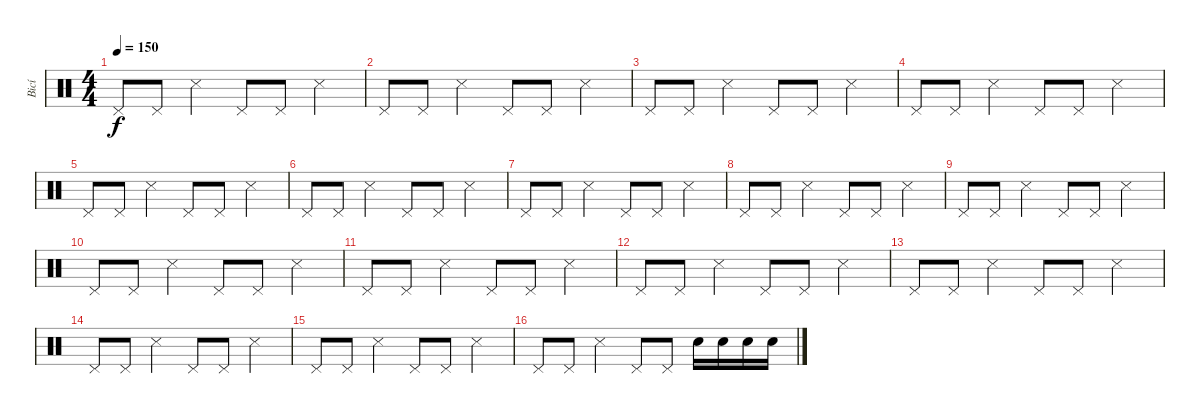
\track ("Bicí" "Bicí") {instrument percussion}
\staff {score}
\articulation defaults
\ts (4 4)
\tempo 150
\clef neutral
\ks c "Pedal Hi-Hat (hit)".8{dy f} "Pedal Hi-Hat (hit)".8 "Snare (side stick) 3".4 "Pedal Hi-Hat (hit)".8 "Pedal Hi-Hat (hit)".8 "Snare (side stick) 3".4
|
"Pedal Hi-Hat (hit)".8 "Pedal Hi-Hat (hit)".8 "Snare (side stick) 3".4 "Pedal Hi-Hat (hit)".8 "Pedal Hi-Hat (hit)".8 "Snare (side stick) 3".4 |
"Pedal Hi-Hat (hit)".8 "Pedal Hi-Hat (hit)".8 "Snare (side stick) 3".4 "Pedal Hi-Hat (hit)".8 "Pedal Hi-Hat (hit)".8 "Snare (side stick) 3".4 |
"Pedal Hi-Hat (hit)".8 "Pedal Hi-Hat (hit)".8 "Snare (side stick) 3".4 "Pedal Hi-Hat (hit)".8 "Pedal Hi-Hat (hit)".8 "Snare (side stick) 3".4 |
"Pedal Hi-Hat (hit)".8 "Pedal Hi-Hat (hit)".8 "Snare (side stick) 3".4 "Pedal Hi-Hat (hit)".8 "Pedal Hi-Hat (hit)".8 "Snare (side stick) 3".4 |
"Pedal Hi-Hat (hit)".8 "Pedal Hi-Hat (hit)".8 "Snare (side stick) 3".4 "Pedal Hi-Hat (hit)".8 "Pedal Hi-Hat (hit)".8 "Snare (side stick) 3".4 |
"Pedal Hi-Hat (hit)".8 "Pedal Hi-Hat (hit)".8 "Snare (side stick) 3".4 "Pedal Hi-Hat (hit)".8 "Pedal Hi-Hat (hit)".8 "Snare (side stick) 3".4 |
"Pedal Hi-Hat (hit)".8 "Pedal Hi-Hat (hit)".8 "Snare (side stick) 3".4 "Pedal Hi-Hat (hit)".8 "Pedal Hi-Hat (hit)".8 "Snare (side stick) 3".4 |
"Pedal Hi-Hat (hit)".8 "Pedal Hi-Hat (hit)".8 "Snare (side stick) 3".4 "Pedal Hi-Hat (hit)".8 "Pedal Hi-Hat (hit)".8 "Snare (side stick) 3".4 |
"Pedal Hi-Hat (hit)".8 "Pedal Hi-Hat (hit)".8 "Snare (side stick) 3".4 "Pedal Hi-Hat (hit)".8 "Pedal Hi-Hat (hit)".8 "Snare (side stick) 3".4 |
"Pedal Hi-Hat (hit)".8 "Pedal Hi-Hat (hit)".8 "Snare (side stick) 3".4 "Pedal Hi-Hat (hit)".8 "Pedal Hi-Hat (hit)".8 "Snare (side stick) 3".4 |
"Pedal Hi-Hat (hit)".8 "Pedal Hi-Hat (hit)".8 "Snare (side stick) 3".4 "Pedal Hi-Hat (hit)".8 "Pedal Hi-Hat (hit)".8 "Snare (side stick) 3".4 |
"Pedal Hi-Hat (hit)".8 "Pedal Hi-Hat (hit)".8 "Snare (side stick) 3".4 "Pedal Hi-Hat (hit)".8 "Pedal Hi-Hat (hit)".8 "Snare (side stick) 3".4 |
"Pedal Hi-Hat (hit)".8 "Pedal Hi-Hat (hit)".8 "Snare (side stick) 3".4 "Pedal Hi-Hat (hit)".8 "Pedal Hi-Hat (hit)".8 "Snare (side stick) 3".4 |
"Pedal Hi-Hat (hit)".8 "Pedal Hi-Hat (hit)".8 "Snare (side stick) 3".4 "Pedal Hi-Hat (hit)".8 "Pedal Hi-Hat (hit)".8 "Snare (side stick) 3".4 |
"Pedal Hi-Hat (hit)".8 "Pedal Hi-Hat (hit)".8 "Snare (side stick) 3".4 "Pedal Hi-Hat (hit)".8 "Pedal Hi-Hat (hit)".8 "Snare (hit) 2".16 "Snare (hit) 2".16 "Snare (hit) 2".16 "Snare (hit) 2".16
